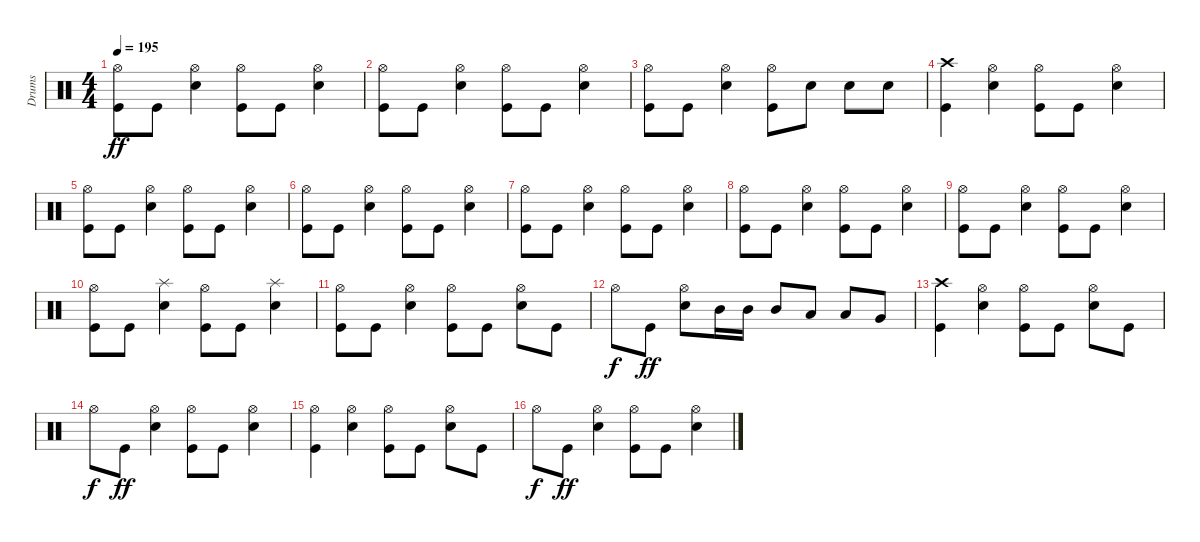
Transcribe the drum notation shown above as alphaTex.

\track ("Drums" "Drums") {instrument percussion}
\staff {score}
\articulation defaults
\ts (4 4)
\tempo 195
\clef neutral
\ks c
("Hi-Hat (open)" "Kick (hit)").8{dy ff} "Kick (hit)".8 ("Hi-Hat (open)" "Snare (hit) 2").4 ("Hi-Hat (open)" "Kick (hit)").8 "Kick (hit)".8 ("Hi-Hat (open)" "Snare (hit) 2").4 |
("Hi-Hat (open)" "Kick (hit)").8 "Kick (hit)".8 ("Hi-Hat (open)" "Snare (hit) 2").4 ("Hi-Hat (open)" "Kick (hit)").8 "Kick (hit)".8 ("Hi-Hat (open)" "Snare (hit) 2").4 |
("Hi-Hat (open)" "Kick (hit)").8 "Kick (hit)".8 ("Hi-Hat (open)" "Snare (hit) 2").4 ("Hi-Hat (open)" "Kick (hit)").8 "Snare (hit) 2".8 "Snare (hit) 2".8 "Snare (hit) 2".8 |
("Crash high (hit)" "Kick (hit)").4 ("Hi-Hat (open)" "Snare (hit) 2").4 ("Hi-Hat (open)" "Kick (hit)").8 "Kick (hit)".8 ("Hi-Hat (open)" "Snare (hit) 2").4 |
("Hi-Hat (open)" "Kick (hit)").8 "Kick (hit)".8 ("Hi-Hat (open)" "Snare (hit) 2").4 ("Hi-Hat (open)" "Kick (hit)").8 "Kick (hit)".8 ("Hi-Hat (open)" "Snare (hit) 2").4 |
("Hi-Hat (open)" "Kick (hit)").8 "Kick (hit)".8 ("Hi-Hat (open)" "Snare (hit) 2").4 ("Hi-Hat (open)" "Kick (hit)").8 "Kick (hit)".8 ("Hi-Hat (open)" "Snare (hit) 2").4 |
("Hi-Hat (open)" "Kick (hit)").8 "Kick (hit)".8 ("Hi-Hat (open)" "Snare (hit) 2").4 ("Hi-Hat (open)" "Kick (hit)").8 "Kick (hit)".8 ("Hi-Hat (open)" "Snare (hit) 2").4 |
("Hi-Hat (open)" "Kick (hit)").8 "Kick (hit)".8 ("Hi-Hat (open)" "Snare (hit) 2").4 ("Hi-Hat (open)" "Kick (hit)").8 "Kick (hit)".8 ("Hi-Hat (open)" "Snare (hit) 2").4 |
("Hi-Hat (open)" "Kick (hit)").8 "Kick (hit)".8 ("Hi-Hat (open)" "Snare (hit) 2").4 ("Hi-Hat (open)" "Kick (hit)").8 "Kick (hit)".8 ("Hi-Hat (open)" "Snare (hit) 2").4 |
("Hi-Hat (open)" "Kick (hit)").8 "Kick (hit)".8 ("Splash (hit)" "Snare (hit) 2").4 ("Hi-Hat (open)" "Kick (hit)").8 "Kick (hit)".8 ("Splash (hit)" "Snare (hit) 2").4 |
("Hi-Hat (open)" "Kick (hit)").8 "Kick (hit)".8 ("Hi-Hat (open)" "Snare (hit) 2").4 ("Hi-Hat (open)" "Kick (hit)").8 "Kick (hit)".8 ("Hi-Hat (open)" "Snare (hit) 2").8 "Kick (hit)".8 |
"Hi-Hat (open)".8{dy f} "Kick (hit)".8{dy ff} ("Hi-Hat (open)" "Snare (hit) 2").8 "Mid Tom (hit)".16 "Mid Tom (hit)".16 "Mid Tom (hit)".8 "Low Tom (hit)".8 "Low Tom (hit)".8 "Very Low Tom (hit)".8 |
("Crash high (hit)" "Kick (hit)").4 ("Hi-Hat (open)" "Snare (hit) 2").4 ("Hi-Hat (open)" "Kick (hit)").8 "Kick (hit)".8 ("Hi-Hat (open)" "Snare (hit) 2").8 "Kick (hit)".8 |
"Hi-Hat (open)".8{dy f} "Kick (hit)".8{dy ff} ("Hi-Hat (open)" "Snare (hit) 2").4 ("Hi-Hat (open)" "Kick (hit)").8 "Kick (hit)".8 ("Hi-Hat (open)" "Snare (hit) 2").4 |
("Hi-Hat (open)" "Kick (hit)").4 ("Hi-Hat (open)" "Snare (hit) 2").4 ("Hi-Hat (open)" "Kick (hit)").8 "Kick (hit)".8 ("Hi-Hat (open)" "Snare (hit) 2").8 "Kick (hit)".8 |
"Hi-Hat (open)".8{dy f} "Kick (hit)".8{dy ff} ("Hi-Hat (open)" "Snare (hit) 2").4 ("Hi-Hat (open)" "Kick (hit)").8 "Kick (hit)".8 ("Hi-Hat (open)" "Snare (hit) 2").4
